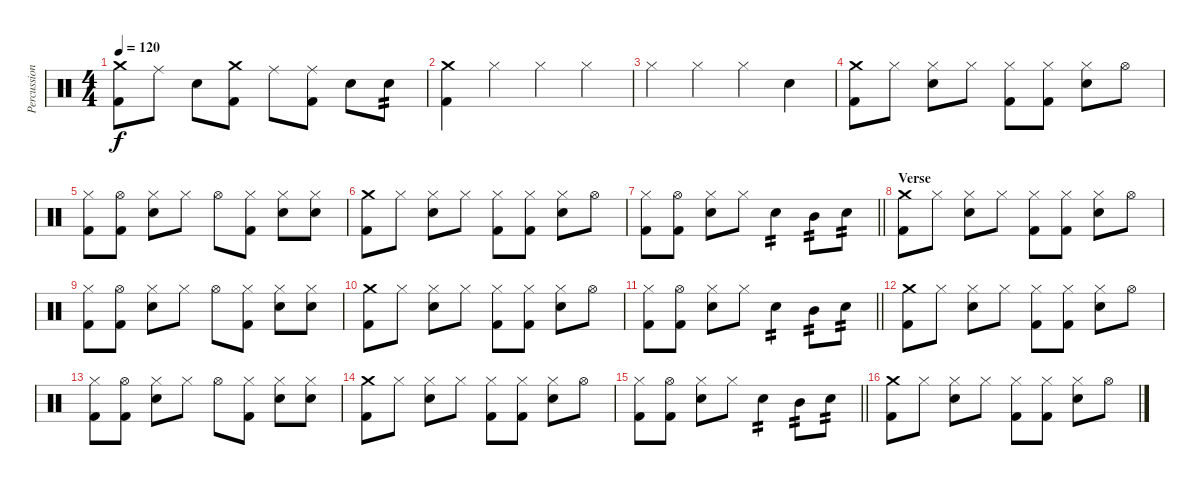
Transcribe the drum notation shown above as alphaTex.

\track ("Percussion" "Percussion") {instrument percussion}
\staff {score}
\articulation defaults
\ts (4 4)
\tempo 120
\clef neutral
\ks c
("Crash medium (hit)" "Kick (hit) 2").8{dy f} "Ride (middle)".8 "Snare (hit) 2".8 ("Crash medium (hit)" "Kick (hit) 2").8 "Ride (middle)".8 ("Ride (middle)" "Kick (hit) 2").8 "Snare (hit) 2".8 "Snare (hit) 2".8{tp 2} |
("Crash medium (hit)" "Kick (hit) 2").4 "Hi-Hat (closed)".4 "Hi-Hat (closed)".4 "Hi-Hat (closed)".4 |
"Hi-Hat (closed)".4 "Hi-Hat (closed)".4 "Hi-Hat (closed)".4 "Snare (hit) 2".4 |
("Crash medium (hit)" "Kick (hit) 2").8 "Hi-Hat (closed)".8 ("Hi-Hat (closed)" "Snare (hit) 2").8 "Hi-Hat (closed)".8 ("Hi-Hat (closed)" "Kick (hit) 2").8 ("Hi-Hat (closed)" "Kick (hit) 2").8 ("Hi-Hat (closed)" "Snare (hit) 2").8 "Hi-Hat (open)".8 |
("Hi-Hat (closed)" "Kick (hit) 2").8 ("Hi-Hat (open)" "Kick (hit) 2").8 ("Hi-Hat (closed)" "Snare (hit) 2").8 "Hi-Hat (closed)".8 "Hi-Hat (open)".8 ("Hi-Hat (closed)" "Kick (hit) 2").8 ("Hi-Hat (closed)" "Snare (hit) 2").8 ("Hi-Hat (closed)" "Snare (hit) 2").8 |
("Crash medium (hit)" "Kick (hit) 2").8 "Hi-Hat (closed)".8 ("Hi-Hat (closed)" "Snare (hit) 2").8 "Hi-Hat (closed)".8 ("Hi-Hat (closed)" "Kick (hit) 2").8 ("Hi-Hat (closed)" "Kick (hit) 2").8 ("Hi-Hat (closed)" "Snare (hit) 2").8 "Hi-Hat (open)".8 |
\barLineRight lightlight
("Hi-Hat (closed)" "Kick (hit) 2").8 ("Hi-Hat (open)" "Kick (hit) 2").8 ("Hi-Hat (closed)" "Snare (hit) 2").8 "Hi-Hat (closed)".8 "Snare (hit) 2".4{tp 2} "Mid Tom (hit)".8{tp 2} "Snare (hit) 2".8{tp 2} |
\section ("" "Verse")
("Crash medium (hit)" "Kick (hit) 2").8 "Hi-Hat (closed)".8 ("Hi-Hat (closed)" "Snare (hit) 2").8 "Hi-Hat (closed)".8 ("Hi-Hat (closed)" "Kick (hit) 2").8 ("Hi-Hat (closed)" "Kick (hit) 2").8 ("Hi-Hat (closed)" "Snare (hit) 2").8 "Hi-Hat (open)".8 |
("Hi-Hat (closed)" "Kick (hit) 2").8 ("Hi-Hat (open)" "Kick (hit) 2").8 ("Hi-Hat (closed)" "Snare (hit) 2").8 "Hi-Hat (closed)".8 "Hi-Hat (open)".8 ("Hi-Hat (closed)" "Kick (hit) 2").8 ("Hi-Hat (closed)" "Snare (hit) 2").8 ("Hi-Hat (closed)" "Snare (hit) 2").8 |
("Crash medium (hit)" "Kick (hit) 2").8 "Hi-Hat (closed)".8 ("Hi-Hat (closed)" "Snare (hit) 2").8 "Hi-Hat (closed)".8 ("Hi-Hat (closed)" "Kick (hit) 2").8 ("Hi-Hat (closed)" "Kick (hit) 2").8 ("Hi-Hat (closed)" "Snare (hit) 2").8 "Hi-Hat (open)".8 |
\barLineRight lightlight
("Hi-Hat (closed)" "Kick (hit) 2").8 ("Hi-Hat (open)" "Kick (hit) 2").8 ("Hi-Hat (closed)" "Snare (hit) 2").8 "Hi-Hat (closed)".8 "Snare (hit) 2".4{tp 2} "Mid Tom (hit)".8{tp 2} "Snare (hit) 2".8{tp 2} |
\section ("" "")
("Crash medium (hit)" "Kick (hit) 2").8 "Hi-Hat (closed)".8 ("Hi-Hat (closed)" "Snare (hit) 2").8 "Hi-Hat (closed)".8 ("Hi-Hat (closed)" "Kick (hit) 2").8 ("Hi-Hat (closed)" "Kick (hit) 2").8 ("Hi-Hat (closed)" "Snare (hit) 2").8 "Hi-Hat (open)".8 |
("Hi-Hat (closed)" "Kick (hit) 2").8 ("Hi-Hat (open)" "Kick (hit) 2").8 ("Hi-Hat (closed)" "Snare (hit) 2").8 "Hi-Hat (closed)".8 "Hi-Hat (open)".8 ("Hi-Hat (closed)" "Kick (hit) 2").8 ("Hi-Hat (closed)" "Snare (hit) 2").8 ("Hi-Hat (closed)" "Snare (hit) 2").8 |
("Crash medium (hit)" "Kick (hit) 2").8 "Hi-Hat (closed)".8 ("Hi-Hat (closed)" "Snare (hit) 2").8 "Hi-Hat (closed)".8 ("Hi-Hat (closed)" "Kick (hit) 2").8 ("Hi-Hat (closed)" "Kick (hit) 2").8 ("Hi-Hat (closed)" "Snare (hit) 2").8 "Hi-Hat (open)".8 |
\barLineRight lightlight
("Hi-Hat (closed)" "Kick (hit) 2").8 ("Hi-Hat (open)" "Kick (hit) 2").8 ("Hi-Hat (closed)" "Snare (hit) 2").8 "Hi-Hat (closed)".8 "Snare (hit) 2".4{tp 2} "Mid Tom (hit)".8{tp 2} "Snare (hit) 2".8{tp 2} |
("Crash medium (hit)" "Kick (hit) 2").8 "Hi-Hat (closed)".8 ("Hi-Hat (closed)" "Snare (hit) 2").8 "Hi-Hat (closed)".8 ("Hi-Hat (closed)" "Kick (hit) 2").8 ("Hi-Hat (closed)" "Kick (hit) 2").8 ("Hi-Hat (closed)" "Snare (hit) 2").8 "Hi-Hat (open)".8
